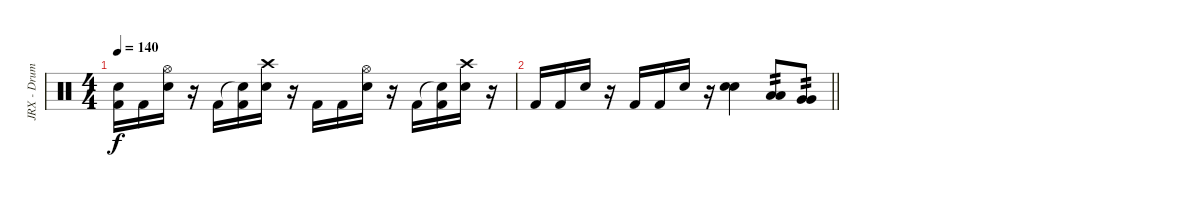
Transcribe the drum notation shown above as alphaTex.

\track ("JRX - Drum" "JRX - Drum") {instrument percussion}
\staff {score}
\articulation defaults
\ts (4 4)
\tempo 140
\clef neutral
\ks c
("Snare (hit)"{t} "Kick (hit) 2").16{dy f} "Kick (hit) 2".16 ("Hi-Hat (open)" "Electric Snare (hit)").16 r.16 "Kick (hit) 2".16 ("Snare (hit)"{t} "Kick (hit) 2").16 ("Electric Snare (hit)" "Crash high (hit)").16 r.16 "Kick (hit) 2".16 "Kick (hit) 2".16 ("Hi-Hat (open)" "Electric Snare (hit)").16 r.16 "Kick (hit) 2".16 ("Snare (hit)"{t} "Kick (hit) 2").16 ("Electric Snare (hit)" "Crash high (hit)").16 r.16 |
\barLineRight lightlight "Kick (hit) 2".16 "Kick (hit) 2".16 "Electric Snare (hit)".16
r.16 "Kick (hit) 2".16 "Kick (hit) 2".16 "Electric Snare (hit)".16 r.16 ("Electric Snare (hit)" "Electric Snare (hit)").4 ("Low Tom (hit)" "Low Tom (hit)").8{tp 2} ("Very Low Tom (hit)" "Very Low Tom (hit)").8{tp 2}
